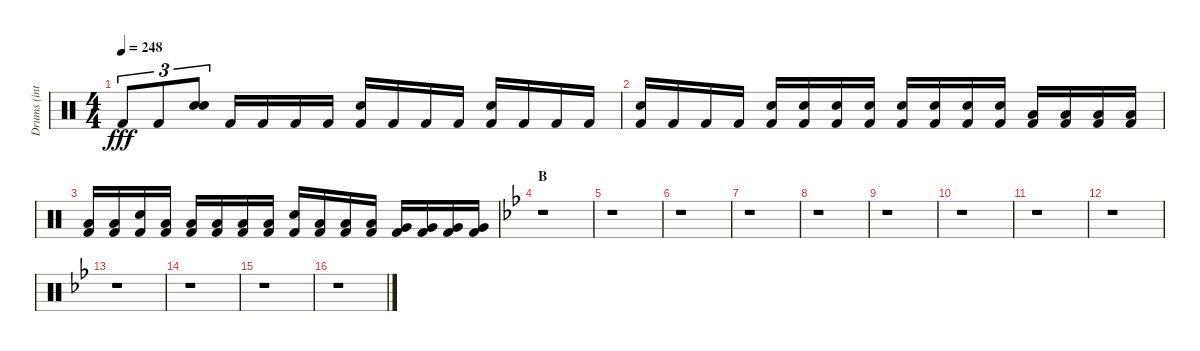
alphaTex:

\track ("Drums (intro only)" "Drums (int") {instrument percussion}
\staff {score}
\articulation defaults
\ts (4 4)
\tempo 248
\clef neutral
\ks c "Kick (hit) 2".8{tu (3 2) dy fff} "Kick (hit) 2".8{tu (3 2)}
("Snare (hit) 2" "Snare (hit) 2").8{tu (3 2)} "Kick (hit) 2".16 "Kick (hit) 2".16 "Kick (hit) 2".16 "Kick (hit) 2".16 ("Snare (hit) 2" "Kick (hit) 2").16 "Kick (hit) 2".16 "Kick (hit) 2".16 "Kick (hit) 2".16 ("Snare (hit) 2" "Kick (hit) 2").16 "Kick (hit) 2".16 "Kick (hit) 2".16 "Kick (hit) 2".16 |
("Snare (hit) 2" "Kick (hit) 2").16 "Kick (hit) 2".16 "Kick (hit) 2".16 "Kick (hit) 2".16 ("Snare (hit) 2" "Kick (hit) 2").16 ("Snare (hit) 2" "Kick (hit) 2").16 ("Snare (hit) 2" "Kick (hit) 2").16 ("Snare (hit) 2" "Kick (hit) 2").16 ("Snare (hit) 2" "Kick (hit) 2").16 ("Snare (hit) 2" "Kick (hit) 2").16 ("Snare (hit) 2" "Kick (hit) 2").16 ("Snare (hit) 2" "Kick (hit) 2").16 ("Low Tom (hit)" "Kick (hit) 2").16 ("Low Tom (hit)" "Kick (hit) 2").16 ("Low Tom (hit)" "Kick (hit) 2").16 ("Low Tom (hit)" "Kick (hit) 2").16 |
("Low Tom (hit)" "Kick (hit) 2").16 ("Low Tom (hit)" "Kick (hit) 2").16 ("Snare (hit) 2" "Kick (hit) 2").16 ("Low Tom (hit)" "Kick (hit) 2").16 ("Low Tom (hit)" "Kick (hit) 2").16 ("Low Tom (hit)" "Kick (hit) 2").16 ("Low Tom (hit)" "Kick (hit) 2").16 ("Low Tom (hit)" "Kick (hit) 2").16 ("Snare (hit) 2" "Kick (hit) 2").16 ("Low Tom (hit)" "Kick (hit) 2").16 ("Low Tom (hit)" "Kick (hit) 2").16 ("Low Tom (hit)" "Kick (hit) 2").16 ("Very Low Tom (hit)" "Kick (hit) 2").16 ("Very Low Tom (hit)" "Kick (hit) 2").16 ("Very Low Tom (hit)" "Kick (hit) 2").16 ("Very Low Tom (hit)" "Kick (hit) 2").16 |
\section ("" "B")
\ks bb
r.1 |
r.1 |
r.1 |
r.1 |
r.1 |
r.1 |
r.1 |
r.1 |
r.1 |
r.1 |
r.1 |
r.1 |
r.1
